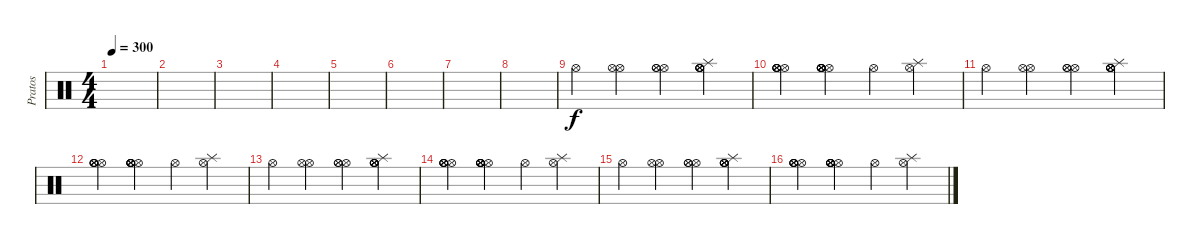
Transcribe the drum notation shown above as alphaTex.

\track ("Pratos" "Pratos") {instrument percussion}
\staff {score}
\articulation defaults
\ts (4 4)
\tempo 300
\clef neutral
\ks c
|
|
|
|
|
|
|
|
"Hi-Hat (open)".4 ("Hi-Hat (open)" "Hi-Hat (open)").4 ("Hi-Hat (open)" "Hi-Hat (open)" "Hi-Hat (open)").4 ("Splash (hit)" "Hi-Hat (open)" "Hi-Hat (open)" "Hi-Hat (open)" "Hi-Hat (open)").4 |
("Hi-Hat (open)" "Hi-Hat (open)" "Hi-Hat (open)" "Hi-Hat (open)" "Hi-Hat (open)").4 ("Hi-Hat (open)" "Hi-Hat (open)" "Hi-Hat (open)" "Hi-Hat (open)" "Hi-Hat (open)" "Hi-Hat (open)").4 "Hi-Hat (open)".4 ("Hi-Hat (open)" "Splash (hit)").4 |
"Hi-Hat (open)".4 ("Hi-Hat (open)" "Hi-Hat (open)").4 ("Hi-Hat (open)" "Hi-Hat (open)" "Hi-Hat (open)").4 ("Splash (hit)" "Hi-Hat (open)" "Hi-Hat (open)" "Hi-Hat (open)" "Hi-Hat (open)").4 |
("Hi-Hat (open)" "Hi-Hat (open)" "Hi-Hat (open)" "Hi-Hat (open)" "Hi-Hat (open)").4 ("Hi-Hat (open)" "Hi-Hat (open)" "Hi-Hat (open)" "Hi-Hat (open)" "Hi-Hat (open)" "Hi-Hat (open)").4 "Hi-Hat (open)".4 ("Hi-Hat (open)" "Splash (hit)").4 |
"Hi-Hat (open)".4 ("Hi-Hat (open)" "Hi-Hat (open)").4 ("Hi-Hat (open)" "Hi-Hat (open)" "Hi-Hat (open)").4 ("Splash (hit)" "Hi-Hat (open)" "Hi-Hat (open)" "Hi-Hat (open)" "Hi-Hat (open)").4 |
("Hi-Hat (open)" "Hi-Hat (open)" "Hi-Hat (open)" "Hi-Hat (open)" "Hi-Hat (open)").4 ("Hi-Hat (open)" "Hi-Hat (open)" "Hi-Hat (open)" "Hi-Hat (open)" "Hi-Hat (open)" "Hi-Hat (open)").4 "Hi-Hat (open)".4 ("Hi-Hat (open)" "Splash (hit)").4 |
"Hi-Hat (open)".4 ("Hi-Hat (open)" "Hi-Hat (open)").4 ("Hi-Hat (open)" "Hi-Hat (open)" "Hi-Hat (open)").4 ("Splash (hit)" "Hi-Hat (open)" "Hi-Hat (open)" "Hi-Hat (open)" "Hi-Hat (open)").4 |
("Hi-Hat (open)" "Hi-Hat (open)" "Hi-Hat (open)" "Hi-Hat (open)" "Hi-Hat (open)").4 ("Hi-Hat (open)" "Hi-Hat (open)" "Hi-Hat (open)" "Hi-Hat (open)" "Hi-Hat (open)" "Hi-Hat (open)").4 "Hi-Hat (open)".4 ("Hi-Hat (open)" "Splash (hit)").4
